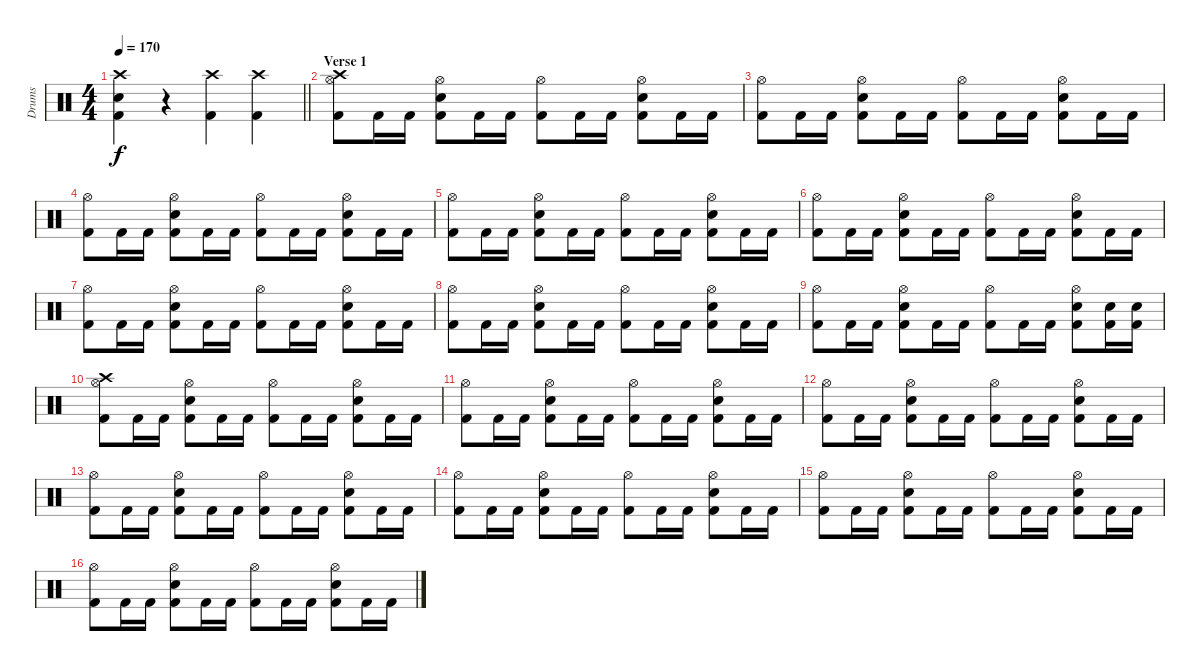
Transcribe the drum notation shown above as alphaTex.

\track ("Drums" "Drums") {instrument percussion}
\staff {score}
\articulation defaults
\ts (4 4)
\tempo 170
\clef neutral
\barLineRight lightlight
\ks c
("Crash high (hit)" "Snare (hit) 2" "Kick (hit) 2").4{dy f} r.4 ("Crash high (hit)" "Kick (hit) 2").4 ("Crash high (hit)" "Kick (hit) 2").4 |
\section ("" "Verse 1")
("Crash high (hit)" "Hi-Hat (open)" "Kick (hit) 2").8 "Kick (hit) 2".16 "Kick (hit) 2".16 ("Hi-Hat (open)" "Snare (hit) 2" "Kick (hit) 2").8 "Kick (hit) 2".16 "Kick (hit) 2".16 ("Hi-Hat (open)" "Kick (hit) 2").8 "Kick (hit) 2".16 "Kick (hit) 2".16 ("Hi-Hat (open)" "Snare (hit) 2" "Kick (hit) 2").8 "Kick (hit) 2".16 "Kick (hit) 2".16 |
("Hi-Hat (open)" "Kick (hit) 2").8 "Kick (hit) 2".16 "Kick (hit) 2".16 ("Hi-Hat (open)" "Snare (hit) 2" "Kick (hit) 2").8 "Kick (hit) 2".16 "Kick (hit) 2".16 ("Hi-Hat (open)" "Kick (hit) 2").8 "Kick (hit) 2".16 "Kick (hit) 2".16 ("Hi-Hat (open)" "Snare (hit) 2" "Kick (hit) 2").8 "Kick (hit) 2".16 "Kick (hit) 2".16 |
("Hi-Hat (open)" "Kick (hit) 2").8 "Kick (hit) 2".16 "Kick (hit) 2".16 ("Hi-Hat (open)" "Snare (hit) 2" "Kick (hit) 2").8 "Kick (hit) 2".16 "Kick (hit) 2".16 ("Hi-Hat (open)" "Kick (hit) 2").8 "Kick (hit) 2".16 "Kick (hit) 2".16 ("Hi-Hat (open)" "Snare (hit) 2" "Kick (hit) 2").8 "Kick (hit) 2".16 "Kick (hit) 2".16 |
("Hi-Hat (open)" "Kick (hit) 2").8 "Kick (hit) 2".16 "Kick (hit) 2".16 ("Hi-Hat (open)" "Snare (hit) 2" "Kick (hit) 2").8 "Kick (hit) 2".16 "Kick (hit) 2".16 ("Hi-Hat (open)" "Kick (hit) 2").8 "Kick (hit) 2".16 "Kick (hit) 2".16 ("Hi-Hat (open)" "Snare (hit) 2" "Kick (hit) 2").8 "Kick (hit) 2".16 "Kick (hit) 2".16 |
("Hi-Hat (open)" "Kick (hit) 2").8 "Kick (hit) 2".16 "Kick (hit) 2".16 ("Hi-Hat (open)" "Snare (hit) 2" "Kick (hit) 2").8 "Kick (hit) 2".16 "Kick (hit) 2".16 ("Hi-Hat (open)" "Kick (hit) 2").8 "Kick (hit) 2".16 "Kick (hit) 2".16 ("Hi-Hat (open)" "Snare (hit) 2" "Kick (hit) 2").8 "Kick (hit) 2".16 "Kick (hit) 2".16 |
("Hi-Hat (open)" "Kick (hit) 2").8 "Kick (hit) 2".16 "Kick (hit) 2".16 ("Hi-Hat (open)" "Snare (hit) 2" "Kick (hit) 2").8 "Kick (hit) 2".16 "Kick (hit) 2".16 ("Hi-Hat (open)" "Kick (hit) 2").8 "Kick (hit) 2".16 "Kick (hit) 2".16 ("Hi-Hat (open)" "Snare (hit) 2" "Kick (hit) 2").8 "Kick (hit) 2".16 "Kick (hit) 2".16 |
("Hi-Hat (open)" "Kick (hit) 2").8 "Kick (hit) 2".16 "Kick (hit) 2".16 ("Hi-Hat (open)" "Snare (hit) 2" "Kick (hit) 2").8 "Kick (hit) 2".16 "Kick (hit) 2".16 ("Hi-Hat (open)" "Kick (hit) 2").8 "Kick (hit) 2".16 "Kick (hit) 2".16 ("Hi-Hat (open)" "Snare (hit) 2" "Kick (hit) 2").8 "Kick (hit) 2".16 "Kick (hit) 2".16 |
("Hi-Hat (open)" "Kick (hit) 2").8 "Kick (hit) 2".16 "Kick (hit) 2".16 ("Hi-Hat (open)" "Snare (hit) 2" "Kick (hit) 2").8 "Kick (hit) 2".16 "Kick (hit) 2".16 ("Hi-Hat (open)" "Kick (hit) 2").8 "Kick (hit) 2".16 "Kick (hit) 2".16 ("Hi-Hat (open)" "Snare (hit) 2" "Kick (hit) 2").8 ("Snare (hit) 2" "Kick (hit) 2").16 ("Snare (hit) 2" "Kick (hit) 2").16 |
("Crash high (hit)" "Hi-Hat (open)" "Kick (hit) 2").8 "Kick (hit) 2".16 "Kick (hit) 2".16 ("Hi-Hat (open)" "Snare (hit) 2" "Kick (hit) 2").8 "Kick (hit) 2".16 "Kick (hit) 2".16 ("Hi-Hat (open)" "Kick (hit) 2").8 "Kick (hit) 2".16 "Kick (hit) 2".16 ("Hi-Hat (open)" "Snare (hit) 2" "Kick (hit) 2").8 "Kick (hit) 2".16 "Kick (hit) 2".16 |
("Hi-Hat (open)" "Kick (hit) 2").8 "Kick (hit) 2".16 "Kick (hit) 2".16 ("Hi-Hat (open)" "Snare (hit) 2" "Kick (hit) 2").8 "Kick (hit) 2".16 "Kick (hit) 2".16 ("Hi-Hat (open)" "Kick (hit) 2").8 "Kick (hit) 2".16 "Kick (hit) 2".16 ("Hi-Hat (open)" "Snare (hit) 2" "Kick (hit) 2").8 "Kick (hit) 2".16 "Kick (hit) 2".16 |
("Hi-Hat (open)" "Kick (hit) 2").8 "Kick (hit) 2".16 "Kick (hit) 2".16 ("Hi-Hat (open)" "Snare (hit) 2" "Kick (hit) 2").8 "Kick (hit) 2".16 "Kick (hit) 2".16 ("Hi-Hat (open)" "Kick (hit) 2").8 "Kick (hit) 2".16 "Kick (hit) 2".16 ("Hi-Hat (open)" "Snare (hit) 2" "Kick (hit) 2").8 "Kick (hit) 2".16 "Kick (hit) 2".16 |
("Hi-Hat (open)" "Kick (hit) 2").8 "Kick (hit) 2".16 "Kick (hit) 2".16 ("Hi-Hat (open)" "Snare (hit) 2" "Kick (hit) 2").8 "Kick (hit) 2".16 "Kick (hit) 2".16 ("Hi-Hat (open)" "Kick (hit) 2").8 "Kick (hit) 2".16 "Kick (hit) 2".16 ("Hi-Hat (open)" "Snare (hit) 2" "Kick (hit) 2").8 "Kick (hit) 2".16 "Kick (hit) 2".16 |
("Hi-Hat (open)" "Kick (hit) 2").8 "Kick (hit) 2".16 "Kick (hit) 2".16 ("Hi-Hat (open)" "Snare (hit) 2" "Kick (hit) 2").8 "Kick (hit) 2".16 "Kick (hit) 2".16 ("Hi-Hat (open)" "Kick (hit) 2").8 "Kick (hit) 2".16 "Kick (hit) 2".16 ("Hi-Hat (open)" "Snare (hit) 2" "Kick (hit) 2").8 "Kick (hit) 2".16 "Kick (hit) 2".16 |
("Hi-Hat (open)" "Kick (hit) 2").8 "Kick (hit) 2".16 "Kick (hit) 2".16 ("Hi-Hat (open)" "Snare (hit) 2" "Kick (hit) 2").8 "Kick (hit) 2".16 "Kick (hit) 2".16 ("Hi-Hat (open)" "Kick (hit) 2").8 "Kick (hit) 2".16 "Kick (hit) 2".16 ("Hi-Hat (open)" "Snare (hit) 2" "Kick (hit) 2").8 "Kick (hit) 2".16 "Kick (hit) 2".16 |
("Hi-Hat (open)" "Kick (hit) 2").8 "Kick (hit) 2".16 "Kick (hit) 2".16 ("Hi-Hat (open)" "Snare (hit) 2" "Kick (hit) 2").8 "Kick (hit) 2".16 "Kick (hit) 2".16 ("Hi-Hat (open)" "Kick (hit) 2").8 "Kick (hit) 2".16 "Kick (hit) 2".16 ("Hi-Hat (open)" "Snare (hit) 2" "Kick (hit) 2").8 "Kick (hit) 2".16 "Kick (hit) 2".16
